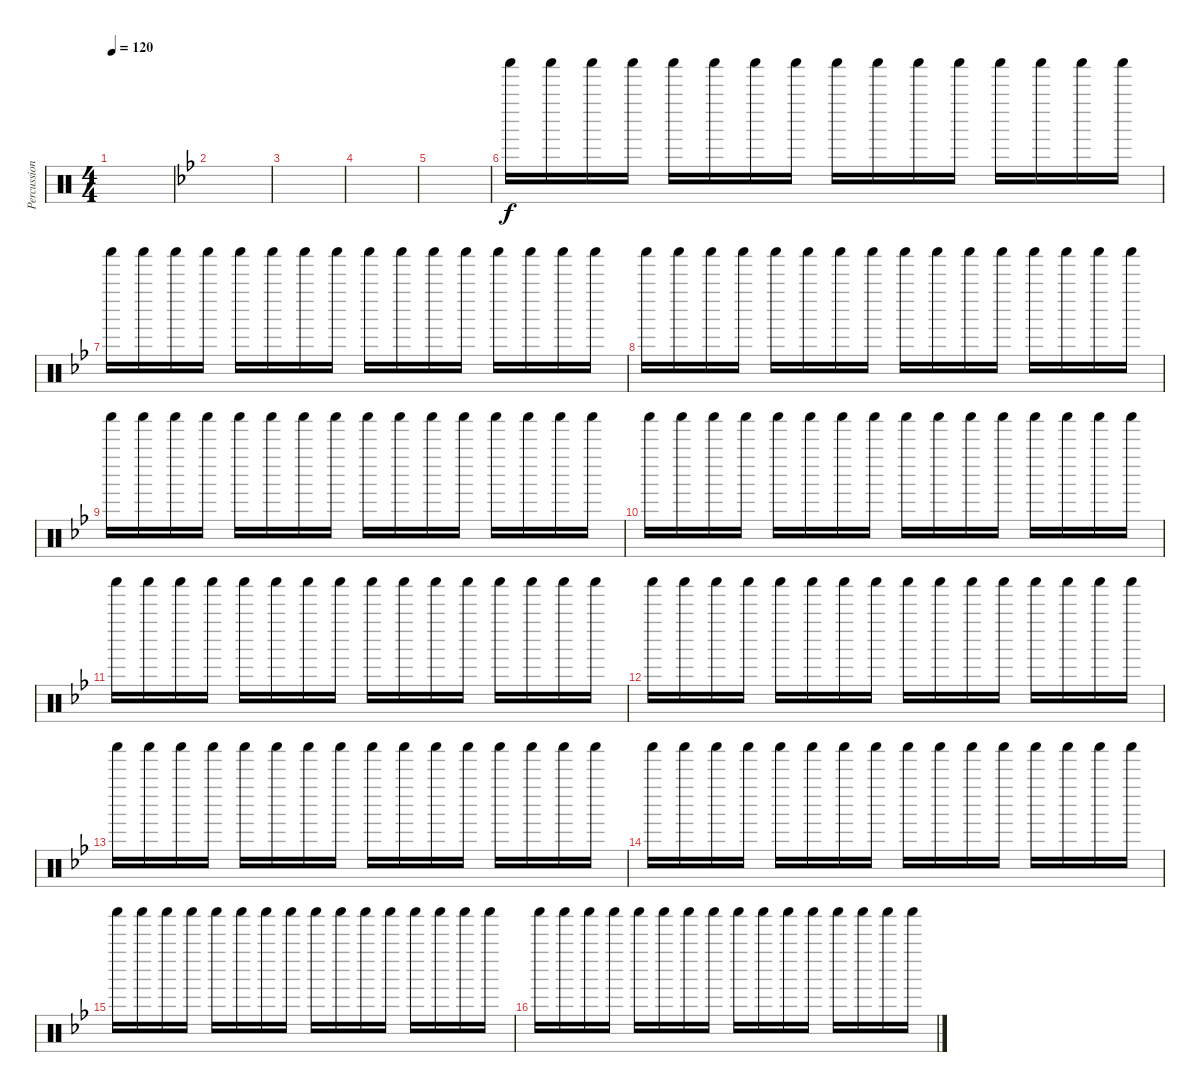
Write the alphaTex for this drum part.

\track ("Percussion" "Percussion") {instrument percussion}
\staff {score}
\articulation defaults
\ts (4 4)
\tempo 120
\clef neutral
\ks c
|
\ks bb
|
|
|
|
"Shaker (hit)".16 "Shaker (hit)".16 "Shaker (hit)".16 "Shaker (hit)".16 "Shaker (hit)".16 "Shaker (hit)".16 "Shaker (hit)".16 "Shaker (hit)".16 "Shaker (hit)".16 "Shaker (hit)".16 "Shaker (hit)".16 "Shaker (hit)".16 "Shaker (hit)".16 "Shaker (hit)".16 "Shaker (hit)".16 "Shaker (hit)".16 |
"Shaker (hit)".16 "Shaker (hit)".16 "Shaker (hit)".16 "Shaker (hit)".16 "Shaker (hit)".16 "Shaker (hit)".16 "Shaker (hit)".16 "Shaker (hit)".16 "Shaker (hit)".16 "Shaker (hit)".16 "Shaker (hit)".16 "Shaker (hit)".16 "Shaker (hit)".16 "Shaker (hit)".16 "Shaker (hit)".16 "Shaker (hit)".16 |
"Shaker (hit)".16 "Shaker (hit)".16 "Shaker (hit)".16 "Shaker (hit)".16 "Shaker (hit)".16 "Shaker (hit)".16 "Shaker (hit)".16 "Shaker (hit)".16 "Shaker (hit)".16 "Shaker (hit)".16 "Shaker (hit)".16 "Shaker (hit)".16 "Shaker (hit)".16 "Shaker (hit)".16 "Shaker (hit)".16 "Shaker (hit)".16 |
"Shaker (hit)".16 "Shaker (hit)".16 "Shaker (hit)".16 "Shaker (hit)".16 "Shaker (hit)".16 "Shaker (hit)".16 "Shaker (hit)".16 "Shaker (hit)".16 "Shaker (hit)".16 "Shaker (hit)".16 "Shaker (hit)".16 "Shaker (hit)".16 "Shaker (hit)".16 "Shaker (hit)".16 "Shaker (hit)".16 "Shaker (hit)".16 |
"Shaker (hit)".16 "Shaker (hit)".16 "Shaker (hit)".16 "Shaker (hit)".16 "Shaker (hit)".16 "Shaker (hit)".16 "Shaker (hit)".16 "Shaker (hit)".16 "Shaker (hit)".16 "Shaker (hit)".16 "Shaker (hit)".16 "Shaker (hit)".16 "Shaker (hit)".16 "Shaker (hit)".16 "Shaker (hit)".16 "Shaker (hit)".16 |
"Shaker (hit)".16 "Shaker (hit)".16 "Shaker (hit)".16 "Shaker (hit)".16 "Shaker (hit)".16 "Shaker (hit)".16 "Shaker (hit)".16 "Shaker (hit)".16 "Shaker (hit)".16 "Shaker (hit)".16 "Shaker (hit)".16 "Shaker (hit)".16 "Shaker (hit)".16 "Shaker (hit)".16 "Shaker (hit)".16 "Shaker (hit)".16 |
"Shaker (hit)".16 "Shaker (hit)".16 "Shaker (hit)".16 "Shaker (hit)".16 "Shaker (hit)".16 "Shaker (hit)".16 "Shaker (hit)".16 "Shaker (hit)".16 "Shaker (hit)".16 "Shaker (hit)".16 "Shaker (hit)".16 "Shaker (hit)".16 "Shaker (hit)".16 "Shaker (hit)".16 "Shaker (hit)".16 "Shaker (hit)".16 |
"Shaker (hit)".16 "Shaker (hit)".16 "Shaker (hit)".16 "Shaker (hit)".16 "Shaker (hit)".16 "Shaker (hit)".16 "Shaker (hit)".16 "Shaker (hit)".16 "Shaker (hit)".16 "Shaker (hit)".16 "Shaker (hit)".16 "Shaker (hit)".16 "Shaker (hit)".16 "Shaker (hit)".16 "Shaker (hit)".16 "Shaker (hit)".16 |
"Shaker (hit)".16 "Shaker (hit)".16 "Shaker (hit)".16 "Shaker (hit)".16 "Shaker (hit)".16 "Shaker (hit)".16 "Shaker (hit)".16 "Shaker (hit)".16 "Shaker (hit)".16 "Shaker (hit)".16 "Shaker (hit)".16 "Shaker (hit)".16 "Shaker (hit)".16 "Shaker (hit)".16 "Shaker (hit)".16 "Shaker (hit)".16 |
"Shaker (hit)".16 "Shaker (hit)".16 "Shaker (hit)".16 "Shaker (hit)".16 "Shaker (hit)".16 "Shaker (hit)".16 "Shaker (hit)".16 "Shaker (hit)".16 "Shaker (hit)".16 "Shaker (hit)".16 "Shaker (hit)".16 "Shaker (hit)".16 "Shaker (hit)".16 "Shaker (hit)".16 "Shaker (hit)".16 "Shaker (hit)".16 |
"Shaker (hit)".16 "Shaker (hit)".16 "Shaker (hit)".16 "Shaker (hit)".16 "Shaker (hit)".16 "Shaker (hit)".16 "Shaker (hit)".16 "Shaker (hit)".16 "Shaker (hit)".16 "Shaker (hit)".16 "Shaker (hit)".16 "Shaker (hit)".16 "Shaker (hit)".16 "Shaker (hit)".16 "Shaker (hit)".16 "Shaker (hit)".16
